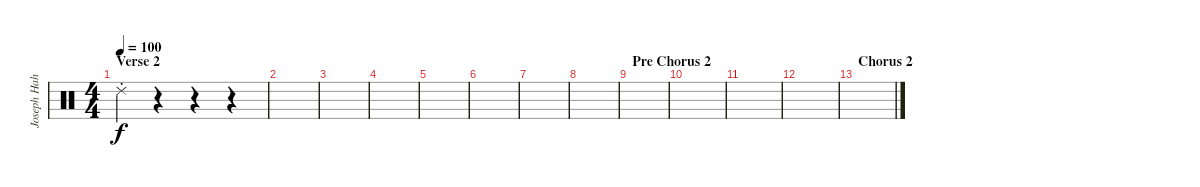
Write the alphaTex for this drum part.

\track ("Joseph Hahn (Sampler 3)" "Joseph Hah") {instrument percussion}
\staff {score}
\articulation defaults
\ts (4 4)
\section ("" "Verse 2")
\tempo 100
\clef neutral
\ks c "Ride (choke) 2".4{dy f}
r.4 r.4 r.4 |
|
|
|
|
|
|
|
\section ("" "Pre Chorus 2")
|
|
|
|
\section ("" "Chorus 2")
